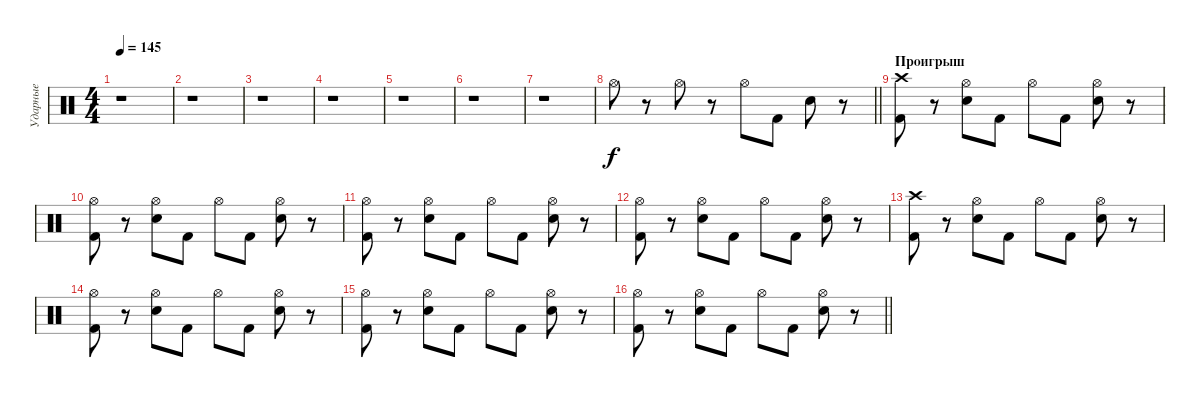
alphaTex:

\track ("Ударные" "Ударные") {instrument percussion}
\staff {score}
\articulation defaults
\ts (4 4)
\tempo 145
\clef neutral
\ks c
r.1{dy f} |
r.1 |
r.1 |
r.1 |
r.1 |
r.1 |
r.1 |
\barLineRight lightlight "Hi-Hat (open)".8
r.8 "Hi-Hat (open)".8 r.8 "Hi-Hat (open)".8 "Kick (hit) 2".8 "Snare (hit) 2".8 r.8 |
\section ("" "Проигрыш")
("Crash high (hit)" "Kick (hit) 2").8 r.8 ("Hi-Hat (open)" "Snare (hit) 2").8 "Kick (hit) 2".8 "Hi-Hat (open)".8 "Kick (hit) 2".8 ("Hi-Hat (open)" "Snare (hit) 2").8 r.8 |
("Hi-Hat (open)" "Kick (hit) 2").8 r.8 ("Hi-Hat (open)" "Snare (hit) 2").8 "Kick (hit) 2".8 "Hi-Hat (open)".8 "Kick (hit) 2".8 ("Hi-Hat (open)" "Snare (hit) 2").8 r.8 |
("Hi-Hat (open)" "Kick (hit) 2").8 r.8 ("Hi-Hat (open)" "Snare (hit) 2").8 "Kick (hit) 2".8 "Hi-Hat (open)".8 "Kick (hit) 2".8 ("Hi-Hat (open)" "Snare (hit) 2").8 r.8 |
("Hi-Hat (open)" "Kick (hit) 2").8 r.8 ("Hi-Hat (open)" "Snare (hit) 2").8 "Kick (hit) 2".8 "Hi-Hat (open)".8 "Kick (hit) 2".8 ("Hi-Hat (open)" "Snare (hit) 2").8 r.8 |
("Crash high (hit)" "Kick (hit) 2").8 r.8 ("Hi-Hat (open)" "Snare (hit) 2").8 "Kick (hit) 2".8 "Hi-Hat (open)".8 "Kick (hit) 2".8 ("Hi-Hat (open)" "Snare (hit) 2").8 r.8 |
("Hi-Hat (open)" "Kick (hit) 2").8 r.8 ("Hi-Hat (open)" "Snare (hit) 2").8 "Kick (hit) 2".8 "Hi-Hat (open)".8 "Kick (hit) 2".8 ("Hi-Hat (open)" "Snare (hit) 2").8 r.8 |
("Hi-Hat (open)" "Kick (hit) 2").8 r.8 ("Hi-Hat (open)" "Snare (hit) 2").8 "Kick (hit) 2".8 "Hi-Hat (open)".8 "Kick (hit) 2".8 ("Hi-Hat (open)" "Snare (hit) 2").8 r.8 |
\barLineRight lightlight
("Hi-Hat (open)" "Kick (hit) 2").8 r.8 ("Hi-Hat (open)" "Snare (hit) 2").8 "Kick (hit) 2".8 "Hi-Hat (open)".8 "Kick (hit) 2".8 ("Hi-Hat (open)" "Snare (hit) 2").8 r.8
